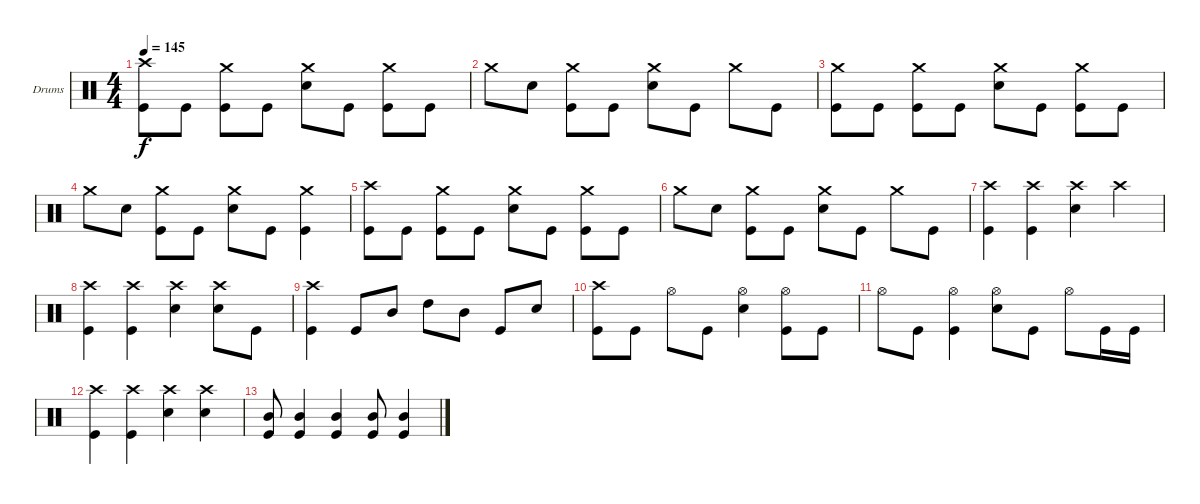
\bracketExtendMode groupsimilarinstruments
\firstSystemTrackNameOrientation horizontal
\otherSystemsTrackNameOrientation horizontal
\track ("Drumkit" "Drums") {instrument percussion}
\staff {score}
\articulation defaults
\ts (4 4)
\tempo 145
\clef neutral
\ks c
("Crash high (hit)" "Kick (hit)").8{dy f} "Kick (hit)".8 ("Kick (hit)" "Crash medium (hit)").8 "Kick (hit)".8 ("Snare (hit) 2" "Crash medium (hit)").8 "Kick (hit)".8 ("Kick (hit)" "Crash medium (hit)").8 "Kick (hit)".8 |
"Crash medium (hit)".8 "Snare (hit) 2".8 ("Crash medium (hit)" "Kick (hit)").8 "Kick (hit)".8 ("Crash medium (hit)" "Snare (hit) 2").8 "Kick (hit)".8 "Crash medium (hit)".8 "Kick (hit)".8 |
("Kick (hit)" "Crash medium (hit)").8 "Kick (hit)".8 ("Kick (hit)" "Crash medium (hit)").8 "Kick (hit)".8 ("Snare (hit) 2" "Crash medium (hit)").8 "Kick (hit)".8 ("Kick (hit)" "Crash medium (hit)").8 "Kick (hit)".8 |
"Crash medium (hit)".8 "Snare (hit) 2".8 ("Crash medium (hit)" "Kick (hit)").8 "Kick (hit)".8 ("Crash medium (hit)" "Snare (hit) 2").8 "Kick (hit)".8 ("Crash medium (hit)" "Kick (hit)").4 |
("Crash high (hit)" "Kick (hit)").8 "Kick (hit)".8 ("Kick (hit)" "Crash medium (hit)").8 "Kick (hit)".8 ("Snare (hit) 2" "Crash medium (hit)").8 "Kick (hit)".8 ("Kick (hit)" "Crash medium (hit)").8 "Kick (hit)".8 |
"Crash medium (hit)".8 "Snare (hit) 2".8 ("Crash medium (hit)" "Kick (hit)").8 "Kick (hit)".8 ("Crash medium (hit)" "Snare (hit) 2").8 "Kick (hit)".8 "Crash medium (hit)".8 "Kick (hit)".8 |
("Crash high (hit)" "Kick (hit)").4 ("Crash high (hit)" "Kick (hit)").4 ("Snare (hit) 2" "Crash high (hit)").4 "Crash high (hit)".4 |
("Crash high (hit)" "Kick (hit)").4 ("Crash high (hit)" "Kick (hit)").4 ("Snare (hit) 2" "Crash high (hit)").4 ("Crash high (hit)" "Snare (hit) 2").8 "Kick (hit)".8 |
("Crash high (hit)" "Kick (hit)").4 "Kick (hit)".8 "Mid Tom (hit)".8 "High Tom (hit)".8 "Mid Tom (hit)".8 "Kick (hit)".8 "Snare (hit) 2".8 |
("Crash high (hit)" "Kick (hit)").8 "Kick (hit)".8 "Hi-Hat (open)".8 "Kick (hit)".8 ("Hi-Hat (open)" "Snare (hit) 2").4 ("Hi-Hat (open)" "Kick (hit)").8 "Kick (hit)".8 |
"Hi-Hat (open)".8 "Kick (hit)".8 ("Hi-Hat (open)" "Kick (hit)").4 ("Hi-Hat (open)" "Snare (hit) 2").8 "Kick (hit)".8 "Hi-Hat (open)".8 "Kick (hit)".16 "Kick (hit)".16 |
("Crash high (hit)" "Kick (hit)").4 ("Kick (hit)" "Crash high (hit)").4 ("Snare (hit) 2" "Crash high (hit)").4 ("Snare (hit) 2" "Crash high (hit)").4 |
("Mid Tom (hit)" "Kick (hit)").8 ("Mid Tom (hit)" "Kick (hit)").4 ("Mid Tom (hit)" "Kick (hit)").4 ("Mid Tom (hit)" "Kick (hit)").8 ("Mid Tom (hit)" "Kick (hit)").4
